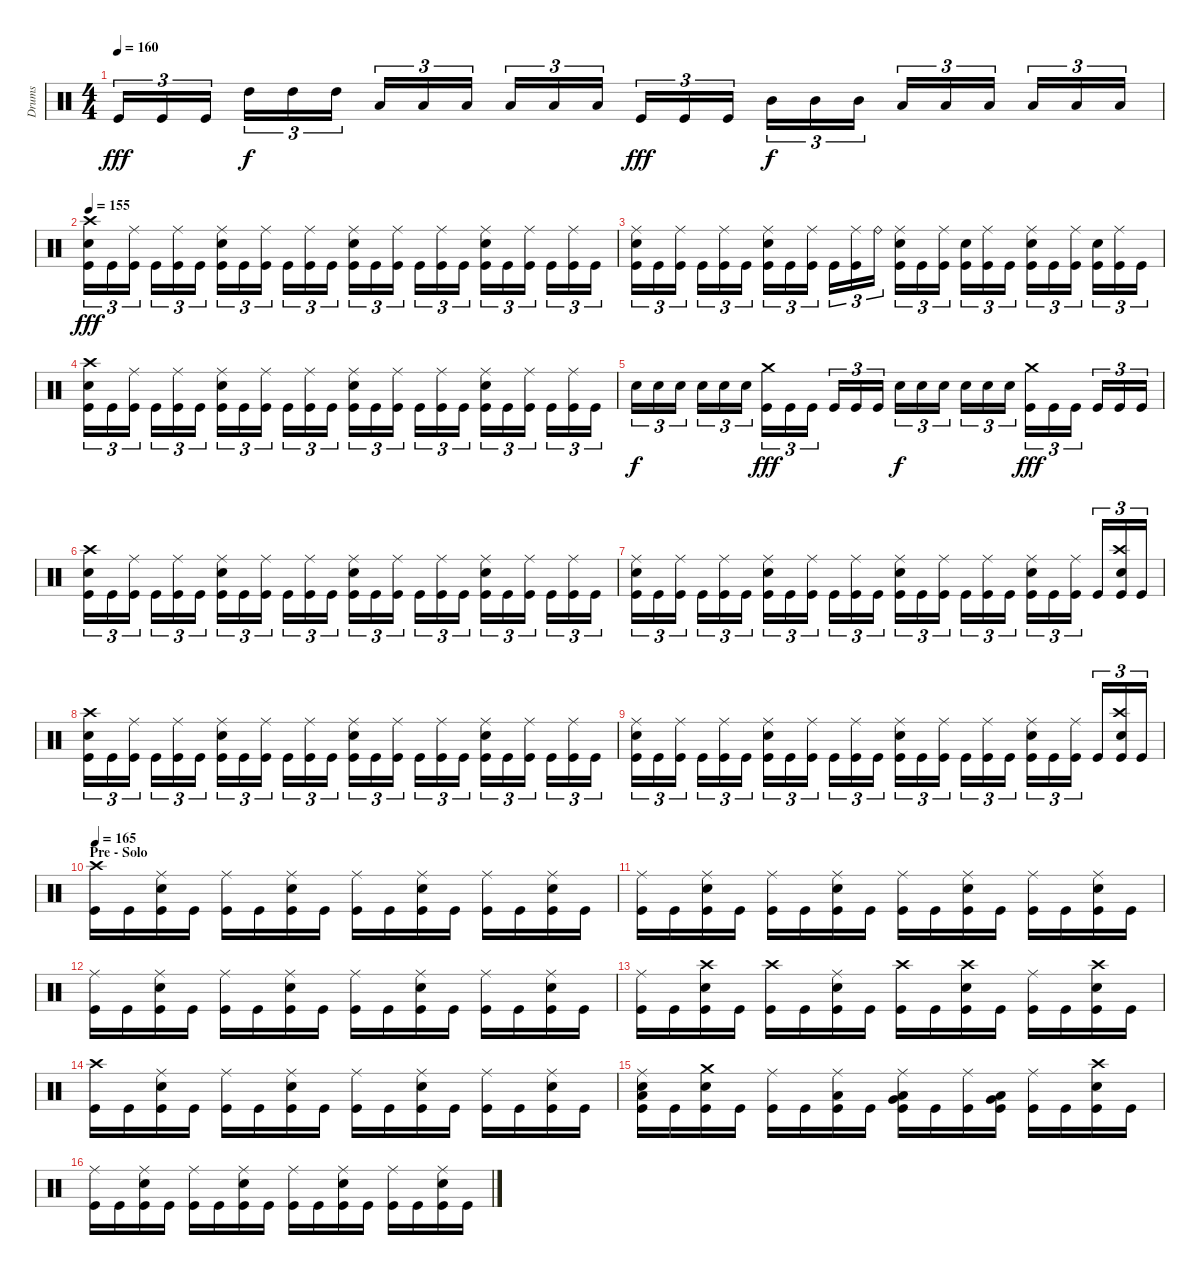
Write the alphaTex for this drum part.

\track ("Drums" "Drums") {instrument percussion}
\staff {score}
\articulation defaults
\ts (4 4)
\tempo 160
\clef neutral
\ks c "Kick (hit)".16{tu (3 2) dy fff} "Kick (hit)".16{tu (3 2)} "Kick (hit)".16{tu (3 2)} "High Tom (hit)".16{tu (3 2) dy f} "High Tom (hit)".16{tu (3 2)} "High Tom (hit)".16{tu (3 2)} "Low Tom (hit)".16{tu (3 2)} "Low Tom (hit)".16{tu (3 2)} "Low Tom (hit)".16{tu (3 2)} "Low Tom (hit)".16{tu (3 2)} "Low Tom (hit)".16{tu (3 2)} "Low Tom (hit)".16{tu (3 2)} "Kick (hit)".16{tu (3 2) dy fff} "Kick (hit)".16{tu (3 2)} "Kick (hit)".16{tu (3 2)} "Mid Tom (hit)".16{tu (3 2) dy f} "Mid Tom (hit)".16{tu (3 2)} "Mid Tom (hit)".16{tu (3 2)} "Low Tom (hit)".16{tu (3 2)} "Low Tom (hit)".16{tu (3 2)} "Low Tom (hit)".16{tu (3 2)} "Low Tom (hit)".16{tu (3 2)} "Low Tom (hit)".16{tu (3 2)} "Low Tom (hit)".16{tu (3 2)}
|
\tempo 155
("Crash high (hit)" "Electric Snare (hit)" "Kick (hit)").16{tu (3 2) dy fff} "Kick (hit)".16{tu (3 2)} ("Ride (middle)" "Kick (hit)").16{tu (3 2)} "Kick (hit)".16{tu (3 2)} ("Ride (middle)" "Kick (hit)").16{tu (3 2)} "Kick (hit)".16{tu (3 2)} ("Ride (middle)" "Electric Snare (hit)" "Kick (hit)").16{tu (3 2)} "Kick (hit)".16{tu (3 2)} ("Ride (middle)" "Kick (hit)").16{tu (3 2)} "Kick (hit)".16{tu (3 2)} ("Ride (middle)" "Kick (hit)").16{tu (3 2)} "Kick (hit)".16{tu (3 2)} ("Ride (middle)" "Electric Snare (hit)" "Kick (hit)").16{tu (3 2)} "Kick (hit)".16{tu (3 2)} ("Ride (middle)" "Kick (hit)").16{tu (3 2)} "Kick (hit)".16{tu (3 2)} ("Ride (middle)" "Kick (hit)").16{tu (3 2)} "Kick (hit)".16{tu (3 2)} ("Ride (middle)" "Electric Snare (hit)" "Kick (hit)").16{tu (3 2)} "Kick (hit)".16{tu (3 2)} ("Ride (middle)" "Kick (hit)").16{tu (3 2)} "Kick (hit)".16{tu (3 2)} ("Ride (middle)" "Kick (hit)").16{tu (3 2)} "Kick (hit)".16{tu (3 2)} |
("Ride (middle)" "Electric Snare (hit)" "Kick (hit)").16{tu (3 2)} "Kick (hit)".16{tu (3 2)} ("Ride (middle)" "Kick (hit)").16{tu (3 2)} "Kick (hit)".16{tu (3 2)} ("Ride (middle)" "Kick (hit)").16{tu (3 2)} "Kick (hit)".16{tu (3 2)} ("Ride (middle)" "Electric Snare (hit)" "Kick (hit)").16{tu (3 2)} "Kick (hit)".16{tu (3 2)} ("Ride (middle)" "Kick (hit)").16{tu (3 2)} "Kick (hit)".16{tu (3 2)} ("Ride (middle)" "Kick (hit)").16{tu (3 2)} "Ride (bell)".16{tu (3 2)} ("Ride (middle)" "Electric Snare (hit)" "Kick (hit)").16{tu (3 2)} "Kick (hit)".16{tu (3 2)} ("Ride (middle)" "Kick (hit)").16{tu (3 2)} ("Electric Snare (hit)" "Kick (hit)").16{tu (3 2)} ("Ride (middle)" "Kick (hit)").16{tu (3 2)} "Kick (hit)".16{tu (3 2)} ("Ride (middle)" "Electric Snare (hit)" "Kick (hit)").16{tu (3 2)} "Kick (hit)".16{tu (3 2)} ("Ride (middle)" "Kick (hit)").16{tu (3 2)} ("Electric Snare (hit)" "Kick (hit)").16{tu (3 2)} ("Ride (middle)" "Kick (hit)").16{tu (3 2)} "Kick (hit)".16{tu (3 2)} |
("Crash high (hit)" "Electric Snare (hit)" "Kick (hit)").16{tu (3 2)} "Kick (hit)".16{tu (3 2)} ("Ride (middle)" "Kick (hit)").16{tu (3 2)} "Kick (hit)".16{tu (3 2)} ("Ride (middle)" "Kick (hit)").16{tu (3 2)} "Kick (hit)".16{tu (3 2)} ("Ride (middle)" "Electric Snare (hit)" "Kick (hit)").16{tu (3 2)} "Kick (hit)".16{tu (3 2)} ("Ride (middle)" "Kick (hit)").16{tu (3 2)} "Kick (hit)".16{tu (3 2)} ("Ride (middle)" "Kick (hit)").16{tu (3 2)} "Kick (hit)".16{tu (3 2)} ("Ride (middle)" "Electric Snare (hit)" "Kick (hit)").16{tu (3 2)} "Kick (hit)".16{tu (3 2)} ("Ride (middle)" "Kick (hit)").16{tu (3 2)} "Kick (hit)".16{tu (3 2)} ("Ride (middle)" "Kick (hit)").16{tu (3 2)} "Kick (hit)".16{tu (3 2)} ("Ride (middle)" "Electric Snare (hit)" "Kick (hit)").16{tu (3 2)} "Kick (hit)".16{tu (3 2)} ("Ride (middle)" "Kick (hit)").16{tu (3 2)} "Kick (hit)".16{tu (3 2)} ("Ride (middle)" "Kick (hit)").16{tu (3 2)} "Kick (hit)".16{tu (3 2)} |
"Electric Snare (hit)".16{tu (3 2) dy f} "Electric Snare (hit)".16{tu (3 2)} "Electric Snare (hit)".16{tu (3 2)} "Electric Snare (hit)".16{tu (3 2)} "Electric Snare (hit)".16{tu (3 2)} "Electric Snare (hit)".16{tu (3 2)} ("Crash medium (hit)" "Kick (hit)").16{tu (3 2) dy fff} "Kick (hit)".16{tu (3 2)} "Kick (hit)".16{tu (3 2)} "Kick (hit)".16{tu (3 2)} "Kick (hit)".16{tu (3 2)} "Kick (hit)".16{tu (3 2)} "Electric Snare (hit)".16{tu (3 2) dy f} "Electric Snare (hit)".16{tu (3 2)} "Electric Snare (hit)".16{tu (3 2)} "Electric Snare (hit)".16{tu (3 2)} "Electric Snare (hit)".16{tu (3 2)} "Electric Snare (hit)".16{tu (3 2)} ("Crash medium (hit)" "Kick (hit)").16{tu (3 2) dy fff} "Kick (hit)".16{tu (3 2)} "Kick (hit)".16{tu (3 2)} "Kick (hit)".16{tu (3 2)} "Kick (hit)".16{tu (3 2)} "Kick (hit)".16{tu (3 2)} |
("Crash high (hit)" "Electric Snare (hit)" "Kick (hit)").16{tu (3 2)} "Kick (hit)".16{tu (3 2)} ("Ride (middle)" "Kick (hit)").16{tu (3 2)} "Kick (hit)".16{tu (3 2)} ("Ride (middle)" "Kick (hit)").16{tu (3 2)} "Kick (hit)".16{tu (3 2)} ("Ride (middle)" "Electric Snare (hit)" "Kick (hit)").16{tu (3 2)} "Kick (hit)".16{tu (3 2)} ("Ride (middle)" "Kick (hit)").16{tu (3 2)} "Kick (hit)".16{tu (3 2)} ("Ride (middle)" "Kick (hit)").16{tu (3 2)} "Kick (hit)".16{tu (3 2)} ("Ride (middle)" "Electric Snare (hit)" "Kick (hit)").16{tu (3 2)} "Kick (hit)".16{tu (3 2)} ("Ride (middle)" "Kick (hit)").16{tu (3 2)} "Kick (hit)".16{tu (3 2)} ("Ride (middle)" "Kick (hit)").16{tu (3 2)} "Kick (hit)".16{tu (3 2)} ("Ride (middle)" "Electric Snare (hit)" "Kick (hit)").16{tu (3 2)} "Kick (hit)".16{tu (3 2)} ("Ride (middle)" "Kick (hit)").16{tu (3 2)} "Kick (hit)".16{tu (3 2)} ("Ride (middle)" "Kick (hit)").16{tu (3 2)} "Kick (hit)".16{tu (3 2)} |
("Ride (middle)" "Electric Snare (hit)" "Kick (hit)").16{tu (3 2)} "Kick (hit)".16{tu (3 2)} ("Ride (middle)" "Kick (hit)").16{tu (3 2)} "Kick (hit)".16{tu (3 2)} ("Ride (middle)" "Kick (hit)").16{tu (3 2)} "Kick (hit)".16{tu (3 2)} ("Ride (middle)" "Electric Snare (hit)" "Kick (hit)").16{tu (3 2)} "Kick (hit)".16{tu (3 2)} ("Ride (middle)" "Kick (hit)").16{tu (3 2)} "Kick (hit)".16{tu (3 2)} ("Ride (middle)" "Kick (hit)").16{tu (3 2)} "Kick (hit)".16{tu (3 2)} ("Ride (middle)" "Electric Snare (hit)" "Kick (hit)").16{tu (3 2)} "Kick (hit)".16{tu (3 2)} ("Ride (middle)" "Kick (hit)").16{tu (3 2)} "Kick (hit)".16{tu (3 2)} ("Ride (middle)" "Kick (hit)").16{tu (3 2)} "Kick (hit)".16{tu (3 2)} ("Ride (middle)" "Electric Snare (hit)" "Kick (hit)").16{tu (3 2)} "Kick (hit)".16{tu (3 2)} ("Ride (middle)" "Kick (hit)").16{tu (3 2)} "Kick (hit)".16{tu (3 2)} ("Crash high (hit)" "Electric Snare (hit)" "Kick (hit)").16{tu (3 2)} "Kick (hit)".16{tu (3 2)} |
("Crash high (hit)" "Electric Snare (hit)" "Kick (hit)").16{tu (3 2)} "Kick (hit)".16{tu (3 2)} ("Ride (middle)" "Kick (hit)").16{tu (3 2)} "Kick (hit)".16{tu (3 2)} ("Ride (middle)" "Kick (hit)").16{tu (3 2)} "Kick (hit)".16{tu (3 2)} ("Ride (middle)" "Electric Snare (hit)" "Kick (hit)").16{tu (3 2)} "Kick (hit)".16{tu (3 2)} ("Ride (middle)" "Kick (hit)").16{tu (3 2)} "Kick (hit)".16{tu (3 2)} ("Ride (middle)" "Kick (hit)").16{tu (3 2)} "Kick (hit)".16{tu (3 2)} ("Ride (middle)" "Electric Snare (hit)" "Kick (hit)").16{tu (3 2)} "Kick (hit)".16{tu (3 2)} ("Ride (middle)" "Kick (hit)").16{tu (3 2)} "Kick (hit)".16{tu (3 2)} ("Ride (middle)" "Kick (hit)").16{tu (3 2)} "Kick (hit)".16{tu (3 2)} ("Ride (middle)" "Electric Snare (hit)" "Kick (hit)").16{tu (3 2)} "Kick (hit)".16{tu (3 2)} ("Ride (middle)" "Kick (hit)").16{tu (3 2)} "Kick (hit)".16{tu (3 2)} ("Ride (middle)" "Kick (hit)").16{tu (3 2)} "Kick (hit)".16{tu (3 2)} |
("Ride (middle)" "Electric Snare (hit)" "Kick (hit)").16{tu (3 2)} "Kick (hit)".16{tu (3 2)} ("Ride (middle)" "Kick (hit)").16{tu (3 2)} "Kick (hit)".16{tu (3 2)} ("Ride (middle)" "Kick (hit)").16{tu (3 2)} "Kick (hit)".16{tu (3 2)} ("Ride (middle)" "Electric Snare (hit)" "Kick (hit)").16{tu (3 2)} "Kick (hit)".16{tu (3 2)} ("Ride (middle)" "Kick (hit)").16{tu (3 2)} "Kick (hit)".16{tu (3 2)} ("Ride (middle)" "Kick (hit)").16{tu (3 2)} "Kick (hit)".16{tu (3 2)} ("Ride (middle)" "Electric Snare (hit)" "Kick (hit)").16{tu (3 2)} "Kick (hit)".16{tu (3 2)} ("Ride (middle)" "Kick (hit)").16{tu (3 2)} "Kick (hit)".16{tu (3 2)} ("Ride (middle)" "Kick (hit)").16{tu (3 2)} "Kick (hit)".16{tu (3 2)} ("Ride (middle)" "Electric Snare (hit)" "Kick (hit)").16{tu (3 2)} "Kick (hit)".16{tu (3 2)} ("Ride (middle)" "Kick (hit)").16{tu (3 2)} "Kick (hit)".16{tu (3 2)} ("Crash high (hit)" "Electric Snare (hit)" "Kick (hit)").16{tu (3 2)} "Kick (hit)".16{tu (3 2)} |
\section ("" "Pre - Solo")
\tempo 165
("Crash high (hit)" "Kick (hit)").16 "Kick (hit)".16 ("Ride (middle)" "Electric Snare (hit)" "Kick (hit)").16 "Kick (hit)".16 ("Ride (middle)" "Kick (hit)").16 "Kick (hit)".16 ("Ride (middle)" "Electric Snare (hit)" "Kick (hit)").16 "Kick (hit)".16 ("Ride (middle)" "Kick (hit)").16 "Kick (hit)".16 ("Ride (middle)" "Electric Snare (hit)" "Kick (hit)").16 "Kick (hit)".16 ("Ride (middle)" "Kick (hit)").16 "Kick (hit)".16 ("Ride (middle)" "Electric Snare (hit)" "Kick (hit)").16 "Kick (hit)".16 |
("Ride (middle)" "Kick (hit)").16 "Kick (hit)".16 ("Ride (middle)" "Electric Snare (hit)" "Kick (hit)").16 "Kick (hit)".16 ("Ride (middle)" "Kick (hit)").16 "Kick (hit)".16 ("Ride (middle)" "Electric Snare (hit)" "Kick (hit)").16 "Kick (hit)".16 ("Ride (middle)" "Kick (hit)").16 "Kick (hit)".16 ("Ride (middle)" "Electric Snare (hit)" "Kick (hit)").16 "Kick (hit)".16 ("Ride (middle)" "Kick (hit)").16 "Kick (hit)".16 ("Ride (middle)" "Electric Snare (hit)" "Kick (hit)").16 "Kick (hit)".16 |
("Ride (middle)" "Kick (hit)").16 "Kick (hit)".16 ("Ride (middle)" "Electric Snare (hit)" "Kick (hit)").16 "Kick (hit)".16 ("Ride (middle)" "Kick (hit)").16 "Kick (hit)".16 ("Ride (middle)" "Electric Snare (hit)" "Kick (hit)").16 "Kick (hit)".16 ("Ride (middle)" "Kick (hit)").16 "Kick (hit)".16 ("Ride (middle)" "Electric Snare (hit)" "Kick (hit)").16 "Kick (hit)".16 ("Ride (middle)" "Kick (hit)").16 "Kick (hit)".16 ("Ride (middle)" "Electric Snare (hit)" "Kick (hit)").16 "Kick (hit)".16 |
("Ride (middle)" "Kick (hit)").16 "Kick (hit)".16 ("Crash high (hit)" "Electric Snare (hit)" "Kick (hit)").16 "Kick (hit)".16 ("Crash high (hit)" "Kick (hit)").16 "Kick (hit)".16 ("Ride (middle)" "Electric Snare (hit)" "Kick (hit)").16 "Kick (hit)".16 ("Crash high (hit)" "Kick (hit)").16 "Kick (hit)".16 ("Crash high (hit)" "Electric Snare (hit)" "Kick (hit)").16 "Kick (hit)".16 ("Ride (middle)" "Kick (hit)").16 "Kick (hit)".16 ("Crash high (hit)" "Electric Snare (hit)" "Kick (hit)").16 "Kick (hit)".16 |
("Crash high (hit)" "Kick (hit)").16 "Kick (hit)".16 ("Ride (middle)" "Electric Snare (hit)" "Kick (hit)").16 "Kick (hit)".16 ("Ride (middle)" "Kick (hit)").16 "Kick (hit)".16 ("Ride (middle)" "Electric Snare (hit)" "Kick (hit)").16 "Kick (hit)".16 ("Ride (middle)" "Kick (hit)").16 "Kick (hit)".16 ("Ride (middle)" "Electric Snare (hit)" "Kick (hit)").16 "Kick (hit)".16 ("Ride (middle)" "Kick (hit)").16 "Kick (hit)".16 ("Ride (middle)" "Electric Snare (hit)" "Kick (hit)").16 "Kick (hit)".16 |
("Ride (middle)" "Low Tom (hit)" "Metronome (bell)" "Kick (hit)").16 "Kick (hit)".16 ("Crash medium (hit)" "Electric Snare (hit)" "Kick (hit)").16 "Kick (hit)".16 ("Ride (middle)" "Kick (hit)").16 "Kick (hit)".16 ("Ride (middle)" "Low Tom (hit)" "Kick (hit)").16 "Kick (hit)".16 ("Ride (middle)" "Low Tom (hit)" "Very Low Tom (hit)" "Kick (hit)").16 "Kick (hit)".16 ("Ride (middle)" "Kick (hit)").16 ("Low Tom (hit)" "Very Low Tom (hit)" "Kick (hit)").16 ("Ride (middle)" "Kick (hit)").16 "Kick (hit)".16 ("Crash high (hit)" "Electric Snare (hit)" "Kick (hit)").16 "Kick (hit)".16 |
("Ride (middle)" "Kick (hit)").16 "Kick (hit)".16 ("Ride (middle)" "Electric Snare (hit)" "Kick (hit)").16 "Kick (hit)".16 ("Ride (middle)" "Kick (hit)").16 "Kick (hit)".16 ("Ride (middle)" "Electric Snare (hit)" "Kick (hit)").16 "Kick (hit)".16 ("Ride (middle)" "Kick (hit)").16 "Kick (hit)".16 ("Ride (middle)" "Electric Snare (hit)" "Kick (hit)").16 "Kick (hit)".16 ("Ride (middle)" "Kick (hit)").16 "Kick (hit)".16 ("Ride (middle)" "Electric Snare (hit)" "Kick (hit)").16 "Kick (hit)".16
